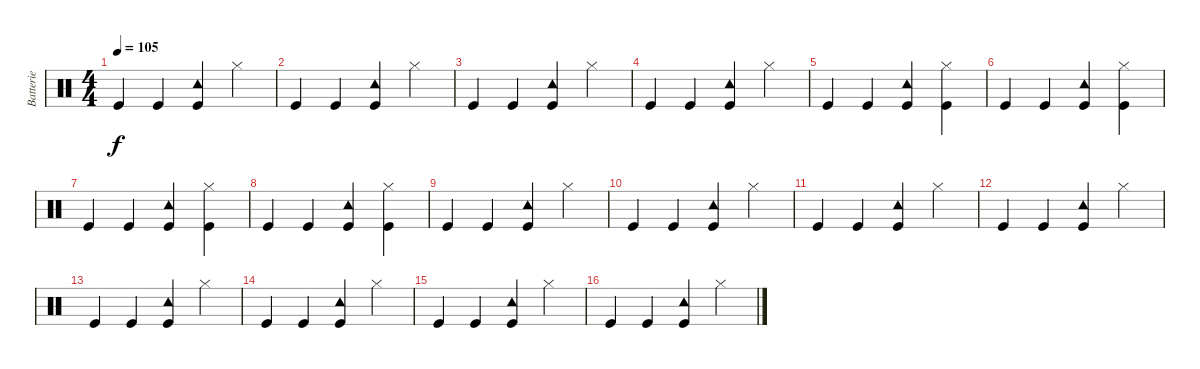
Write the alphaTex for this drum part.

\track ("Batterie" "Batterie") {instrument percussion}
\staff {score}
\articulation defaults
\ts (4 4)
\tempo 105
\clef neutral
\ks c "Kick (hit)".4{dy f} "Kick (hit)".4
("Tambourine (hit)" "Kick (hit)").4 "Hi-Hat (closed)".4 |
"Kick (hit)".4 "Kick (hit)".4 ("Tambourine (hit)" "Kick (hit)").4 "Hi-Hat (closed)".4 |
"Kick (hit)".4 "Kick (hit)".4 ("Tambourine (hit)" "Kick (hit)").4 "Hi-Hat (closed)".4 |
"Kick (hit)".4 "Kick (hit)".4 ("Tambourine (hit)" "Kick (hit)").4 "Hi-Hat (closed)".4 |
"Kick (hit)".4 "Kick (hit)".4 ("Tambourine (hit)" "Kick (hit)").4 ("Hi-Hat (closed)" "Kick (hit)").4 |
"Kick (hit)".4 "Kick (hit)".4 ("Tambourine (hit)" "Kick (hit)").4 ("Hi-Hat (closed)" "Kick (hit)").4 |
"Kick (hit)".4 "Kick (hit)".4 ("Tambourine (hit)" "Kick (hit)").4 ("Hi-Hat (closed)" "Kick (hit)").4 |
"Kick (hit)".4 "Kick (hit)".4 ("Tambourine (hit)" "Kick (hit)").4 ("Hi-Hat (closed)" "Kick (hit)").4 |
"Kick (hit)".4 "Kick (hit)".4 ("Tambourine (hit)" "Kick (hit)").4 "Hi-Hat (closed)".4 |
"Kick (hit)".4 "Kick (hit)".4 ("Tambourine (hit)" "Kick (hit)").4 "Hi-Hat (closed)".4 |
"Kick (hit)".4 "Kick (hit)".4 ("Tambourine (hit)" "Kick (hit)").4 "Hi-Hat (closed)".4 |
"Kick (hit)".4 "Kick (hit)".4 ("Tambourine (hit)" "Kick (hit)").4 "Hi-Hat (closed)".4 |
"Kick (hit)".4 "Kick (hit)".4 ("Tambourine (hit)" "Kick (hit)").4 "Hi-Hat (closed)".4 |
"Kick (hit)".4 "Kick (hit)".4 ("Tambourine (hit)" "Kick (hit)").4 "Hi-Hat (closed)".4 |
"Kick (hit)".4 "Kick (hit)".4 ("Tambourine (hit)" "Kick (hit)").4 "Hi-Hat (closed)".4 |
"Kick (hit)".4 "Kick (hit)".4 ("Tambourine (hit)" "Kick (hit)").4 "Hi-Hat (closed)".4
